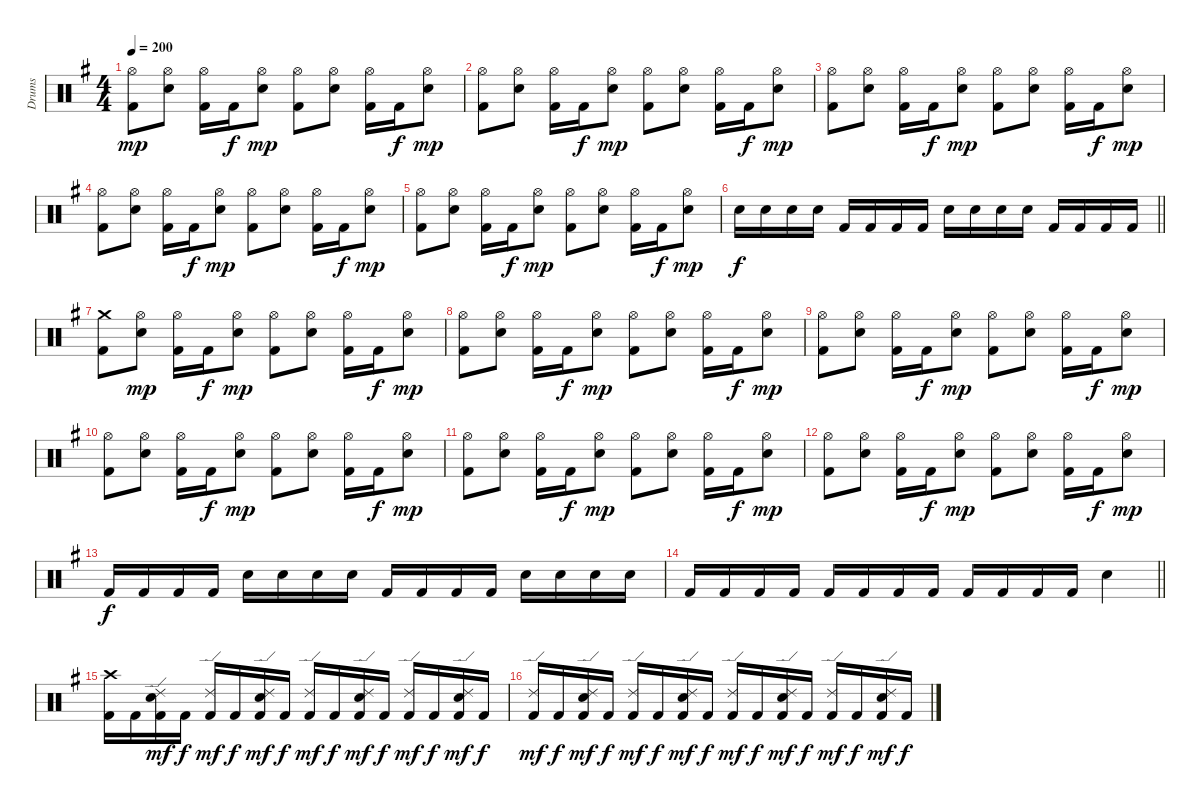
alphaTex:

\track ("Drums" "Drums") {instrument percussion}
\staff {score}
\articulation defaults
\ts (4 4)
\tempo 200
\clef neutral
\ks g
("Hi-Hat (open)" "Kick (hit) 2").8{dy mp} ("Hi-Hat (open)" "Snare (hit) 2").8 ("Hi-Hat (open)" "Kick (hit) 2").16 "Kick (hit) 2".16{dy f} ("Hi-Hat (open)" "Snare (hit) 2").8{dy mp} ("Hi-Hat (open)" "Kick (hit) 2").8 ("Hi-Hat (open)" "Snare (hit) 2").8 ("Hi-Hat (open)" "Kick (hit) 2").16 "Kick (hit) 2".16{dy f} ("Hi-Hat (open)" "Snare (hit) 2").8{dy mp} |
("Hi-Hat (open)" "Kick (hit) 2").8 ("Hi-Hat (open)" "Snare (hit) 2").8 ("Hi-Hat (open)" "Kick (hit) 2").16 "Kick (hit) 2".16{dy f} ("Hi-Hat (open)" "Snare (hit) 2").8{dy mp} ("Hi-Hat (open)" "Kick (hit) 2").8 ("Hi-Hat (open)" "Snare (hit) 2").8 ("Hi-Hat (open)" "Kick (hit) 2").16 "Kick (hit) 2".16{dy f} ("Hi-Hat (open)" "Snare (hit) 2").8{dy mp} |
("Hi-Hat (open)" "Kick (hit) 2").8 ("Hi-Hat (open)" "Snare (hit) 2").8 ("Hi-Hat (open)" "Kick (hit) 2").16 "Kick (hit) 2".16{dy f} ("Hi-Hat (open)" "Snare (hit) 2").8{dy mp} ("Hi-Hat (open)" "Kick (hit) 2").8 ("Hi-Hat (open)" "Snare (hit) 2").8 ("Hi-Hat (open)" "Kick (hit) 2").16 "Kick (hit) 2".16{dy f} ("Hi-Hat (open)" "Snare (hit) 2").8{dy mp} |
("Hi-Hat (open)" "Kick (hit) 2").8 ("Hi-Hat (open)" "Snare (hit) 2").8 ("Hi-Hat (open)" "Kick (hit) 2").16 "Kick (hit) 2".16{dy f} ("Hi-Hat (open)" "Snare (hit) 2").8{dy mp} ("Hi-Hat (open)" "Kick (hit) 2").8 ("Hi-Hat (open)" "Snare (hit) 2").8 ("Hi-Hat (open)" "Kick (hit) 2").16 "Kick (hit) 2".16{dy f} ("Hi-Hat (open)" "Snare (hit) 2").8{dy mp} |
("Hi-Hat (open)" "Kick (hit) 2").8 ("Hi-Hat (open)" "Snare (hit) 2").8 ("Hi-Hat (open)" "Kick (hit) 2").16 "Kick (hit) 2".16{dy f} ("Hi-Hat (open)" "Snare (hit) 2").8{dy mp} ("Hi-Hat (open)" "Kick (hit) 2").8 ("Hi-Hat (open)" "Snare (hit) 2").8 ("Hi-Hat (open)" "Kick (hit) 2").16 "Kick (hit) 2".16{dy f} ("Hi-Hat (open)" "Snare (hit) 2").8{dy mp} |
\barLineRight lightlight "Snare (hit) 2".16{dy f} "Snare (hit) 2".16 "Snare (hit) 2".16 "Snare (hit) 2".16 "Kick (hit) 2".16 "Kick (hit) 2".16 "Kick (hit) 2".16 "Kick (hit) 2".16 "Snare (hit) 2".16 "Snare (hit) 2".16 "Snare (hit) 2".16 "Snare (hit) 2".16 "Kick (hit) 2".16 "Kick (hit) 2".16 "Kick (hit) 2".16 "Kick (hit) 2".16
|
\section ("" "")
("Crash medium (hit)" "Kick (hit) 2").8 ("Hi-Hat (open)" "Snare (hit) 2").8{dy mp} ("Hi-Hat (open)" "Kick (hit) 2").16 "Kick (hit) 2".16{dy f} ("Hi-Hat (open)" "Snare (hit) 2").8{dy mp} ("Hi-Hat (open)" "Kick (hit) 2").8 ("Hi-Hat (open)" "Snare (hit) 2").8 ("Hi-Hat (open)" "Kick (hit) 2").16 "Kick (hit) 2".16{dy f} ("Hi-Hat (open)" "Snare (hit) 2").8{dy mp} |
("Hi-Hat (open)" "Kick (hit) 2").8 ("Hi-Hat (open)" "Snare (hit) 2").8 ("Hi-Hat (open)" "Kick (hit) 2").16 "Kick (hit) 2".16{dy f} ("Hi-Hat (open)" "Snare (hit) 2").8{dy mp} ("Hi-Hat (open)" "Kick (hit) 2").8 ("Hi-Hat (open)" "Snare (hit) 2").8 ("Hi-Hat (open)" "Kick (hit) 2").16 "Kick (hit) 2".16{dy f} ("Hi-Hat (open)" "Snare (hit) 2").8{dy mp} |
("Hi-Hat (open)" "Kick (hit) 2").8 ("Hi-Hat (open)" "Snare (hit) 2").8 ("Hi-Hat (open)" "Kick (hit) 2").16 "Kick (hit) 2".16{dy f} ("Hi-Hat (open)" "Snare (hit) 2").8{dy mp} ("Hi-Hat (open)" "Kick (hit) 2").8 ("Hi-Hat (open)" "Snare (hit) 2").8 ("Hi-Hat (open)" "Kick (hit) 2").16 "Kick (hit) 2".16{dy f} ("Hi-Hat (open)" "Snare (hit) 2").8{dy mp} |
("Hi-Hat (open)" "Kick (hit) 2").8 ("Hi-Hat (open)" "Snare (hit) 2").8 ("Hi-Hat (open)" "Kick (hit) 2").16 "Kick (hit) 2".16{dy f} ("Hi-Hat (open)" "Snare (hit) 2").8{dy mp} ("Hi-Hat (open)" "Kick (hit) 2").8 ("Hi-Hat (open)" "Snare (hit) 2").8 ("Hi-Hat (open)" "Kick (hit) 2").16 "Kick (hit) 2".16{dy f} ("Hi-Hat (open)" "Snare (hit) 2").8{dy mp} |
("Hi-Hat (open)" "Kick (hit) 2").8 ("Hi-Hat (open)" "Snare (hit) 2").8 ("Hi-Hat (open)" "Kick (hit) 2").16 "Kick (hit) 2".16{dy f} ("Hi-Hat (open)" "Snare (hit) 2").8{dy mp} ("Hi-Hat (open)" "Kick (hit) 2").8 ("Hi-Hat (open)" "Snare (hit) 2").8 ("Hi-Hat (open)" "Kick (hit) 2").16 "Kick (hit) 2".16{dy f} ("Hi-Hat (open)" "Snare (hit) 2").8{dy mp} |
("Hi-Hat (open)" "Kick (hit) 2").8 ("Hi-Hat (open)" "Snare (hit) 2").8 ("Hi-Hat (open)" "Kick (hit) 2").16 "Kick (hit) 2".16{dy f} ("Hi-Hat (open)" "Snare (hit) 2").8{dy mp} ("Hi-Hat (open)" "Kick (hit) 2").8 ("Hi-Hat (open)" "Snare (hit) 2").8 ("Hi-Hat (open)" "Kick (hit) 2").16 "Kick (hit) 2".16{dy f} ("Hi-Hat (open)" "Snare (hit) 2").8{dy mp} |
"Kick (hit) 2".16{dy f} "Kick (hit) 2".16 "Kick (hit) 2".16 "Kick (hit) 2".16 "Snare (hit) 2".16 "Snare (hit) 2".16 "Snare (hit) 2".16 "Snare (hit) 2".16 "Kick (hit) 2".16 "Kick (hit) 2".16 "Kick (hit) 2".16 "Kick (hit) 2".16 "Snare (hit) 2".16 "Snare (hit) 2".16 "Snare (hit) 2".16 "Snare (hit) 2".16 |
\barLineRight lightlight "Kick (hit) 2".16 "Kick (hit) 2".16 "Kick (hit) 2".16 "Kick (hit) 2".16 "Kick (hit) 2".16 "Kick (hit) 2".16 "Kick (hit) 2".16 "Kick (hit) 2".16 "Kick (hit) 2".16 "Kick (hit) 2".16 "Kick (hit) 2".16 "Kick (hit) 2".16 "Snare (hit) 2".4
|
\section ("" "")
("Crash high (hit)" "Kick (hit) 2").16 "Kick (hit) 2".16 ("Ride (edge) 2" "Snare (hit) 2" "Kick (hit) 2").16{dy mf} "Kick (hit) 2".16{dy f} ("Ride (edge) 2" "Kick (hit) 2").16{dy mf} "Kick (hit) 2".16{dy f} ("Ride (edge) 2" "Snare (hit) 2" "Kick (hit) 2").16{dy mf} "Kick (hit) 2".16{dy f} ("Ride (edge) 2" "Kick (hit) 2").16{dy mf} "Kick (hit) 2".16{dy f} ("Ride (edge) 2" "Snare (hit) 2" "Kick (hit) 2").16{dy mf} "Kick (hit) 2".16{dy f} ("Ride (edge) 2" "Kick (hit) 2").16{dy mf} "Kick (hit) 2".16{dy f} ("Ride (edge) 2" "Snare (hit) 2" "Kick (hit) 2").16{dy mf} "Kick (hit) 2".16{dy f} |
("Ride (edge) 2" "Kick (hit) 2").16{dy mf} "Kick (hit) 2".16{dy f} ("Ride (edge) 2" "Snare (hit) 2" "Kick (hit) 2").16{dy mf} "Kick (hit) 2".16{dy f} ("Ride (edge) 2" "Kick (hit) 2").16{dy mf} "Kick (hit) 2".16{dy f} ("Ride (edge) 2" "Snare (hit) 2" "Kick (hit) 2").16{dy mf} "Kick (hit) 2".16{dy f} ("Ride (edge) 2" "Kick (hit) 2").16{dy mf} "Kick (hit) 2".16{dy f} ("Ride (edge) 2" "Snare (hit) 2" "Kick (hit) 2").16{dy mf} "Kick (hit) 2".16{dy f} ("Ride (edge) 2" "Kick (hit) 2").16{dy mf} "Kick (hit) 2".16{dy f} ("Ride (edge) 2" "Snare (hit) 2" "Kick (hit) 2").16{dy mf} "Kick (hit) 2".16{dy f}
